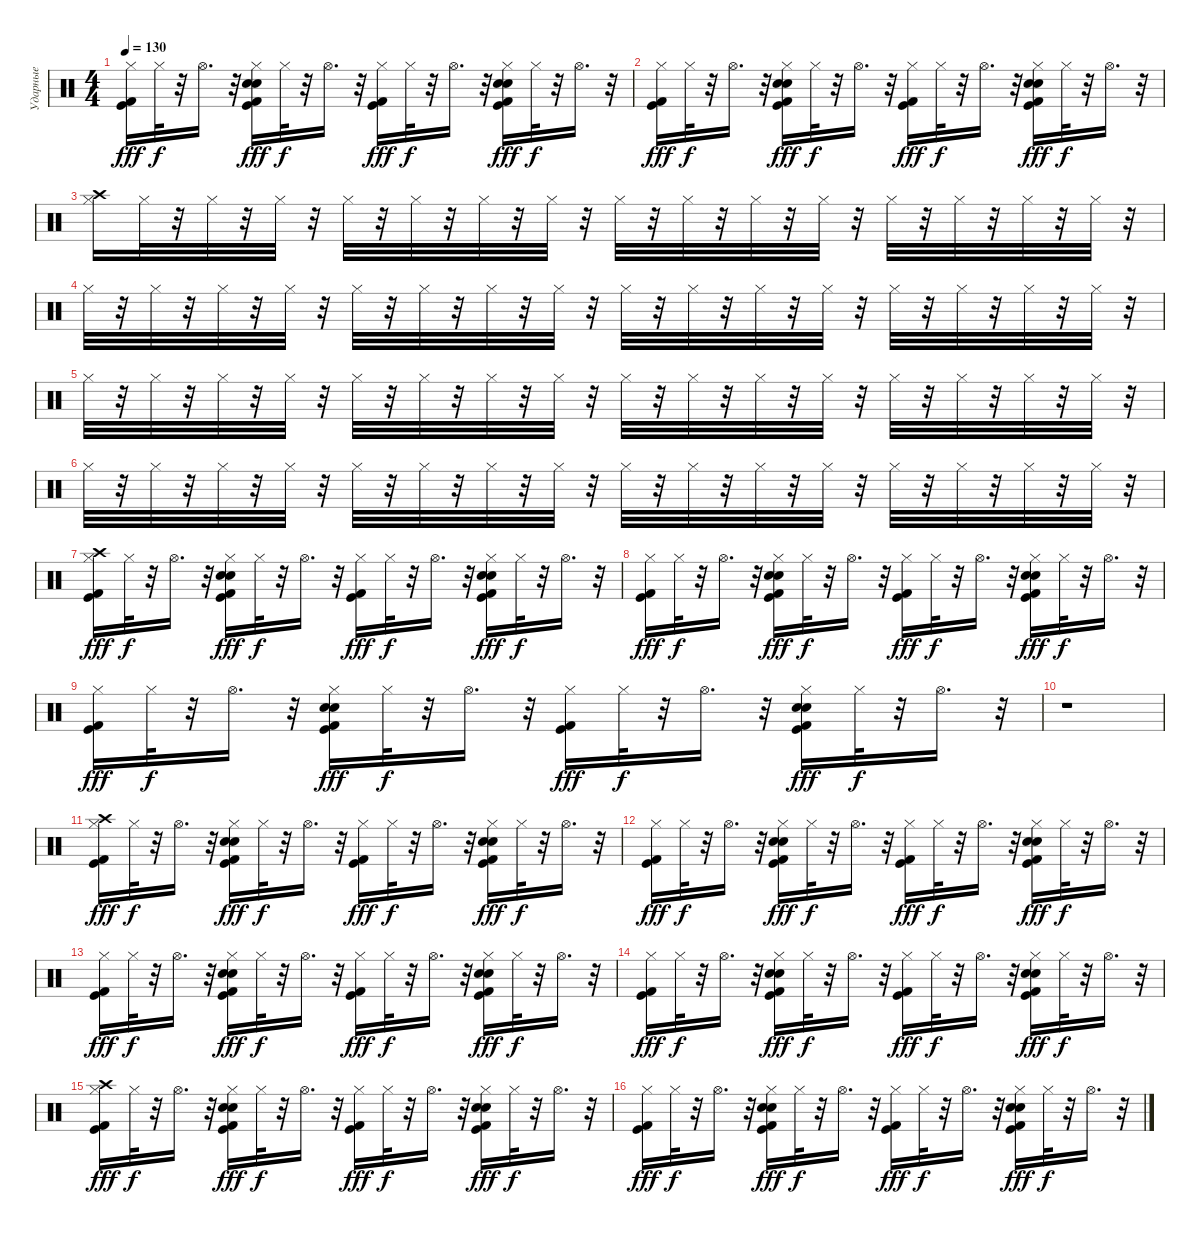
\track ("Ударные" "Ударные") {instrument percussion}
\staff {score}
\articulation defaults
\ts (4 4)
\tempo 130
\clef neutral
\ks c
("Hi-Hat (closed)" "Kick (hit) 2" "Kick (hit)").16{dy fff} "Hi-Hat (closed)".32{dy f} r.32 "Hi-Hat (open)".16{d} r.32 ("Hi-Hat (closed)" "Kick (hit) 2" "Kick (hit)" "Hand Clap (hit)" "Hand Clap (hit)").16{dy fff} "Hi-Hat (closed)".32{dy f} r.32 "Hi-Hat (open)".16{d} r.32 ("Hi-Hat (closed)" "Kick (hit) 2" "Kick (hit)").16{dy fff} "Hi-Hat (closed)".32{dy f} r.32 "Hi-Hat (open)".16{d} r.32 ("Hi-Hat (closed)" "Kick (hit) 2" "Kick (hit)" "Hand Clap (hit)" "Hand Clap (hit)").16{dy fff} "Hi-Hat (closed)".32{dy f} r.32 "Hi-Hat (open)".16{d} r.32 |
("Hi-Hat (closed)" "Kick (hit) 2" "Kick (hit)").16{dy fff} "Hi-Hat (closed)".32{dy f} r.32 "Hi-Hat (open)".16{d} r.32 ("Hi-Hat (closed)" "Kick (hit) 2" "Kick (hit)" "Hand Clap (hit)" "Hand Clap (hit)").16{dy fff} "Hi-Hat (closed)".32{dy f} r.32 "Hi-Hat (open)".16{d} r.32 ("Hi-Hat (closed)" "Kick (hit) 2" "Kick (hit)").16{dy fff} "Hi-Hat (closed)".32{dy f} r.32 "Hi-Hat (open)".16{d} r.32 ("Hi-Hat (closed)" "Kick (hit) 2" "Kick (hit)" "Hand Clap (hit)" "Hand Clap (hit)").16{dy fff} "Hi-Hat (closed)".32{dy f} r.32 "Hi-Hat (open)".16{d} r.32 |
("Crash high (hit)" "Hi-Hat (closed)").16 "Hi-Hat (closed)".32 r.32 "Hi-Hat (closed)".32 r.32 "Hi-Hat (closed)".32 r.32 "Hi-Hat (closed)".32 r.32 "Hi-Hat (closed)".32 r.32 "Hi-Hat (closed)".32 r.32 "Hi-Hat (closed)".32 r.32 "Hi-Hat (closed)".32 r.32 "Hi-Hat (closed)".32 r.32 "Hi-Hat (closed)".32 r.32 "Hi-Hat (closed)".32 r.32 "Hi-Hat (closed)".32 r.32 "Hi-Hat (closed)".32 r.32 "Hi-Hat (closed)".32 r.32 "Hi-Hat (closed)".32 r.32 |
"Hi-Hat (closed)".32 r.32 "Hi-Hat (closed)".32 r.32 "Hi-Hat (closed)".32 r.32 "Hi-Hat (closed)".32 r.32 "Hi-Hat (closed)".32 r.32 "Hi-Hat (closed)".32 r.32 "Hi-Hat (closed)".32 r.32 "Hi-Hat (closed)".32 r.32 "Hi-Hat (closed)".32 r.32 "Hi-Hat (closed)".32 r.32 "Hi-Hat (closed)".32 r.32 "Hi-Hat (closed)".32 r.32 "Hi-Hat (closed)".32 r.32 "Hi-Hat (closed)".32 r.32 "Hi-Hat (closed)".32 r.32 "Hi-Hat (closed)".32 r.32 |
"Hi-Hat (closed)".32 r.32 "Hi-Hat (closed)".32 r.32 "Hi-Hat (closed)".32 r.32 "Hi-Hat (closed)".32 r.32 "Hi-Hat (closed)".32 r.32 "Hi-Hat (closed)".32 r.32 "Hi-Hat (closed)".32 r.32 "Hi-Hat (closed)".32 r.32 "Hi-Hat (closed)".32 r.32 "Hi-Hat (closed)".32 r.32 "Hi-Hat (closed)".32 r.32 "Hi-Hat (closed)".32 r.32 "Hi-Hat (closed)".32 r.32 "Hi-Hat (closed)".32 r.32 "Hi-Hat (closed)".32 r.32 "Hi-Hat (closed)".32 r.32 |
"Hi-Hat (closed)".32 r.32 "Hi-Hat (closed)".32 r.32 "Hi-Hat (closed)".32 r.32 "Hi-Hat (closed)".32 r.32 "Hi-Hat (closed)".32 r.32 "Hi-Hat (closed)".32 r.32 "Hi-Hat (closed)".32 r.32 "Hi-Hat (closed)".32 r.32 "Hi-Hat (closed)".32 r.32 "Hi-Hat (closed)".32 r.32 "Hi-Hat (closed)".32 r.32 "Hi-Hat (closed)".32 r.32 "Hi-Hat (closed)".32 r.32 "Hi-Hat (closed)".32 r.32 "Hi-Hat (closed)".32 r.32 "Hi-Hat (closed)".32 r.32 |
("Crash high (hit)" "Hi-Hat (closed)" "Kick (hit) 2" "Kick (hit)").16{dy fff} "Hi-Hat (closed)".32{dy f} r.32 "Hi-Hat (open)".16{d} r.32 ("Hi-Hat (closed)" "Kick (hit) 2" "Kick (hit)" "Hand Clap (hit)" "Hand Clap (hit)").16{dy fff} "Hi-Hat (closed)".32{dy f} r.32 "Hi-Hat (open)".16{d} r.32 ("Hi-Hat (closed)" "Kick (hit) 2" "Kick (hit)").16{dy fff} "Hi-Hat (closed)".32{dy f} r.32 "Hi-Hat (open)".16{d} r.32 ("Hi-Hat (closed)" "Kick (hit) 2" "Kick (hit)" "Hand Clap (hit)" "Hand Clap (hit)").16{dy fff} "Hi-Hat (closed)".32{dy f} r.32 "Hi-Hat (open)".16{d} r.32 |
("Hi-Hat (closed)" "Kick (hit) 2" "Kick (hit)").16{dy fff} "Hi-Hat (closed)".32{dy f} r.32 "Hi-Hat (open)".16{d} r.32 ("Hi-Hat (closed)" "Kick (hit) 2" "Kick (hit)" "Hand Clap (hit)" "Hand Clap (hit)").16{dy fff} "Hi-Hat (closed)".32{dy f} r.32 "Hi-Hat (open)".16{d} r.32 ("Hi-Hat (closed)" "Kick (hit) 2" "Kick (hit)").16{dy fff} "Hi-Hat (closed)".32{dy f} r.32 "Hi-Hat (open)".16{d} r.32 ("Hi-Hat (closed)" "Kick (hit) 2" "Kick (hit)" "Hand Clap (hit)" "Hand Clap (hit)").16{dy fff} "Hi-Hat (closed)".32{dy f} r.32 "Hi-Hat (open)".16{d} r.32 |
("Hi-Hat (closed)" "Kick (hit) 2" "Kick (hit)").16{dy fff} "Hi-Hat (closed)".32{dy f} r.32 "Hi-Hat (open)".16{d} r.32 ("Hi-Hat (closed)" "Kick (hit) 2" "Kick (hit)" "Hand Clap (hit)" "Hand Clap (hit)").16{dy fff} "Hi-Hat (closed)".32{dy f} r.32 "Hi-Hat (open)".16{d} r.32 ("Hi-Hat (closed)" "Kick (hit) 2" "Kick (hit)").16{dy fff} "Hi-Hat (closed)".32{dy f} r.32 "Hi-Hat (open)".16{d} r.32 ("Hi-Hat (closed)" "Kick (hit) 2" "Kick (hit)" "Hand Clap (hit)" "Hand Clap (hit)").16{dy fff} "Hi-Hat (closed)".32{dy f} r.32 "Hi-Hat (open)".16{d} r.32 |
r.1 |
("Crash high (hit)" "Hi-Hat (closed)" "Kick (hit) 2" "Kick (hit)").16{dy fff} "Hi-Hat (closed)".32{dy f} r.32 "Hi-Hat (open)".16{d} r.32 ("Hi-Hat (closed)" "Kick (hit) 2" "Kick (hit)" "Hand Clap (hit)" "Hand Clap (hit)").16{dy fff} "Hi-Hat (closed)".32{dy f} r.32 "Hi-Hat (open)".16{d} r.32 ("Hi-Hat (closed)" "Kick (hit) 2" "Kick (hit)").16{dy fff} "Hi-Hat (closed)".32{dy f} r.32 "Hi-Hat (open)".16{d} r.32 ("Hi-Hat (closed)" "Kick (hit) 2" "Kick (hit)" "Hand Clap (hit)" "Hand Clap (hit)").16{dy fff} "Hi-Hat (closed)".32{dy f} r.32 "Hi-Hat (open)".16{d} r.32 |
("Hi-Hat (closed)" "Kick (hit) 2" "Kick (hit)").16{dy fff} "Hi-Hat (closed)".32{dy f} r.32 "Hi-Hat (open)".16{d} r.32 ("Hi-Hat (closed)" "Kick (hit) 2" "Kick (hit)" "Hand Clap (hit)" "Hand Clap (hit)").16{dy fff} "Hi-Hat (closed)".32{dy f} r.32 "Hi-Hat (open)".16{d} r.32 ("Hi-Hat (closed)" "Kick (hit) 2" "Kick (hit)").16{dy fff} "Hi-Hat (closed)".32{dy f} r.32 "Hi-Hat (open)".16{d} r.32 ("Hi-Hat (closed)" "Kick (hit) 2" "Kick (hit)" "Hand Clap (hit)" "Hand Clap (hit)").16{dy fff} "Hi-Hat (closed)".32{dy f} r.32 "Hi-Hat (open)".16{d} r.32 |
("Hi-Hat (closed)" "Kick (hit) 2" "Kick (hit)").16{dy fff} "Hi-Hat (closed)".32{dy f} r.32 "Hi-Hat (open)".16{d} r.32 ("Hi-Hat (closed)" "Kick (hit) 2" "Kick (hit)" "Hand Clap (hit)" "Hand Clap (hit)").16{dy fff} "Hi-Hat (closed)".32{dy f} r.32 "Hi-Hat (open)".16{d} r.32 ("Hi-Hat (closed)" "Kick (hit) 2" "Kick (hit)").16{dy fff} "Hi-Hat (closed)".32{dy f} r.32 "Hi-Hat (open)".16{d} r.32 ("Hi-Hat (closed)" "Kick (hit) 2" "Kick (hit)" "Hand Clap (hit)" "Hand Clap (hit)").16{dy fff} "Hi-Hat (closed)".32{dy f} r.32 "Hi-Hat (open)".16{d} r.32 |
("Hi-Hat (closed)" "Kick (hit) 2" "Kick (hit)").16{dy fff} "Hi-Hat (closed)".32{dy f} r.32 "Hi-Hat (open)".16{d} r.32 ("Hi-Hat (closed)" "Kick (hit) 2" "Kick (hit)" "Hand Clap (hit)" "Hand Clap (hit)").16{dy fff} "Hi-Hat (closed)".32{dy f} r.32 "Hi-Hat (open)".16{d} r.32 ("Hi-Hat (closed)" "Kick (hit) 2" "Kick (hit)").16{dy fff} "Hi-Hat (closed)".32{dy f} r.32 "Hi-Hat (open)".16{d} r.32 ("Hi-Hat (closed)" "Kick (hit) 2" "Kick (hit)" "Hand Clap (hit)" "Hand Clap (hit)").16{dy fff} "Hi-Hat (closed)".32{dy f} r.32 "Hi-Hat (open)".16{d} r.32 |
("Crash high (hit)" "Hi-Hat (closed)" "Kick (hit) 2" "Kick (hit)").16{dy fff} "Hi-Hat (closed)".32{dy f} r.32 "Hi-Hat (open)".16{d} r.32 ("Hi-Hat (closed)" "Kick (hit) 2" "Kick (hit)" "Hand Clap (hit)" "Hand Clap (hit)").16{dy fff} "Hi-Hat (closed)".32{dy f} r.32 "Hi-Hat (open)".16{d} r.32 ("Hi-Hat (closed)" "Kick (hit) 2" "Kick (hit)").16{dy fff} "Hi-Hat (closed)".32{dy f} r.32 "Hi-Hat (open)".16{d} r.32 ("Hi-Hat (closed)" "Kick (hit) 2" "Kick (hit)" "Hand Clap (hit)" "Hand Clap (hit)").16{dy fff} "Hi-Hat (closed)".32{dy f} r.32 "Hi-Hat (open)".16{d} r.32 |
("Hi-Hat (closed)" "Kick (hit) 2" "Kick (hit)").16{dy fff} "Hi-Hat (closed)".32{dy f} r.32 "Hi-Hat (open)".16{d} r.32 ("Hi-Hat (closed)" "Kick (hit) 2" "Kick (hit)" "Hand Clap (hit)" "Hand Clap (hit)").16{dy fff} "Hi-Hat (closed)".32{dy f} r.32 "Hi-Hat (open)".16{d} r.32 ("Hi-Hat (closed)" "Kick (hit) 2" "Kick (hit)").16{dy fff} "Hi-Hat (closed)".32{dy f} r.32 "Hi-Hat (open)".16{d} r.32 ("Hi-Hat (closed)" "Kick (hit) 2" "Kick (hit)" "Hand Clap (hit)" "Hand Clap (hit)").16{dy fff} "Hi-Hat (closed)".32{dy f} r.32 "Hi-Hat (open)".16{d} r.32
